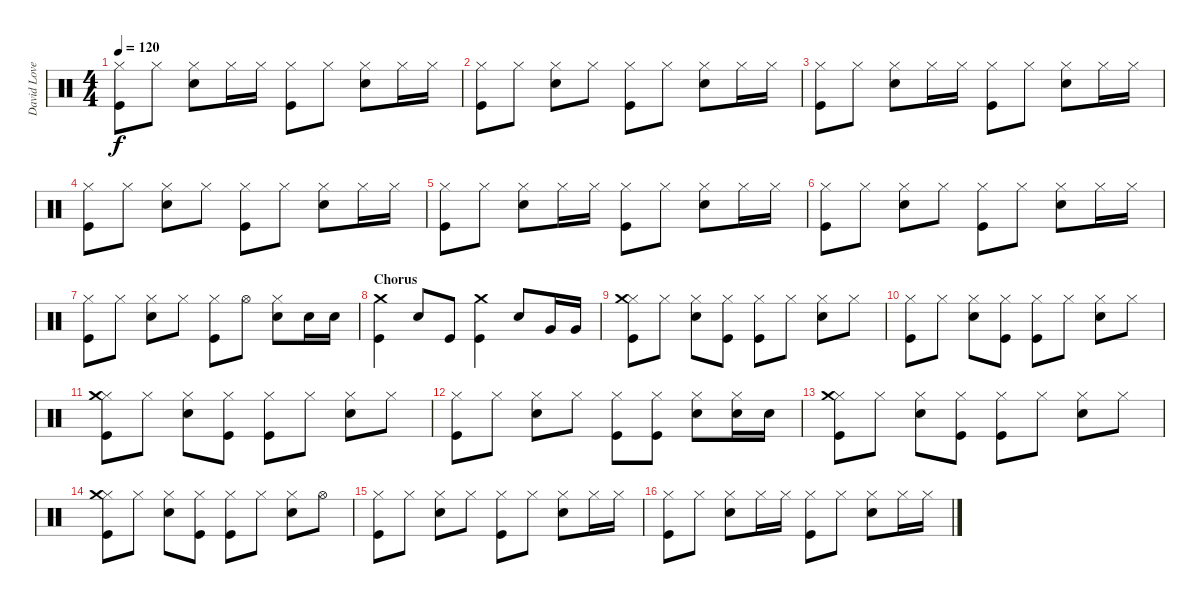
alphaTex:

\track ("David Lovering" "David Love") {instrument percussion}
\staff {score}
\articulation defaults
\ts (4 4)
\tempo 120
\clef neutral
\ks c
("Hi-Hat (closed)" "Kick (hit)").8{dy f} "Hi-Hat (closed)".8 ("Hi-Hat (closed)" "Snare (hit) 2").8 "Hi-Hat (closed)".16 "Hi-Hat (closed)".16 ("Hi-Hat (closed)" "Kick (hit)").8 "Hi-Hat (closed)".8 ("Hi-Hat (closed)" "Snare (hit) 2").8 "Hi-Hat (closed)".16 "Hi-Hat (closed)".16 |
("Hi-Hat (closed)" "Kick (hit)").8 "Hi-Hat (closed)".8 ("Hi-Hat (closed)" "Snare (hit) 2").8 "Hi-Hat (closed)".8 ("Hi-Hat (closed)" "Kick (hit)").8 "Hi-Hat (closed)".8 ("Hi-Hat (closed)" "Snare (hit) 2").8 "Hi-Hat (closed)".16 "Hi-Hat (closed)".16 |
("Hi-Hat (closed)" "Kick (hit)").8 "Hi-Hat (closed)".8 ("Hi-Hat (closed)" "Snare (hit) 2").8 "Hi-Hat (closed)".16 "Hi-Hat (closed)".16 ("Hi-Hat (closed)" "Kick (hit)").8 "Hi-Hat (closed)".8 ("Hi-Hat (closed)" "Snare (hit) 2").8 "Hi-Hat (closed)".16 "Hi-Hat (closed)".16 |
("Hi-Hat (closed)" "Kick (hit)").8 "Hi-Hat (closed)".8 ("Hi-Hat (closed)" "Snare (hit) 2").8 "Hi-Hat (closed)".8 ("Hi-Hat (closed)" "Kick (hit)").8 "Hi-Hat (closed)".8 ("Hi-Hat (closed)" "Snare (hit) 2").8 "Hi-Hat (closed)".16 "Hi-Hat (closed)".16 |
("Hi-Hat (closed)" "Kick (hit)").8 "Hi-Hat (closed)".8 ("Hi-Hat (closed)" "Snare (hit) 2").8 "Hi-Hat (closed)".16 "Hi-Hat (closed)".16 ("Hi-Hat (closed)" "Kick (hit)").8 "Hi-Hat (closed)".8 ("Hi-Hat (closed)" "Snare (hit) 2").8 "Hi-Hat (closed)".16 "Hi-Hat (closed)".16 |
("Hi-Hat (closed)" "Kick (hit)").8 "Hi-Hat (closed)".8 ("Hi-Hat (closed)" "Snare (hit) 2").8 "Hi-Hat (closed)".8 ("Hi-Hat (closed)" "Kick (hit)").8 "Hi-Hat (closed)".8 ("Hi-Hat (closed)" "Snare (hit) 2").8 "Hi-Hat (closed)".16 "Hi-Hat (closed)".16 |
("Hi-Hat (closed)" "Kick (hit)").8 "Hi-Hat (closed)".8 ("Hi-Hat (closed)" "Snare (hit) 2").8 "Hi-Hat (closed)".8 ("Hi-Hat (closed)" "Kick (hit)").8 "Hi-Hat (open)".8 ("Hi-Hat (closed)" "Snare (hit) 2").8 "Snare (hit) 2".16 "Snare (hit) 2".16 |
\section ("" "Chorus")
("Crash medium (hit)" "Kick (hit)").4 "Snare (hit) 2".8 "Kick (hit)".8 ("Crash medium (hit)" "Kick (hit)").4 "Snare (hit) 2".8 "Very Low Tom (hit)".16 "Very Low Tom (hit)".16 |
("Hi-Hat (closed)" "Crash medium (hit)" "Kick (hit)").8 "Hi-Hat (closed)".8 ("Hi-Hat (closed)" "Snare (hit) 2").8 ("Hi-Hat (closed)" "Kick (hit)").8 ("Hi-Hat (closed)" "Kick (hit)").8 "Hi-Hat (closed)".8 ("Hi-Hat (closed)" "Snare (hit) 2").8 "Hi-Hat (closed)".8 |
("Hi-Hat (closed)" "Kick (hit)").8 "Hi-Hat (closed)".8 ("Hi-Hat (closed)" "Snare (hit) 2").8 ("Hi-Hat (closed)" "Kick (hit)").8 ("Hi-Hat (closed)" "Kick (hit)").8 "Hi-Hat (closed)".8 ("Hi-Hat (closed)" "Snare (hit) 2").8 "Hi-Hat (closed)".8 |
("Hi-Hat (closed)" "Crash medium (hit)" "Kick (hit)").8 "Hi-Hat (closed)".8 ("Hi-Hat (closed)" "Snare (hit) 2").8 ("Hi-Hat (closed)" "Kick (hit)").8 ("Hi-Hat (closed)" "Kick (hit)").8 "Hi-Hat (closed)".8 ("Hi-Hat (closed)" "Snare (hit) 2").8 "Hi-Hat (closed)".8 |
("Hi-Hat (closed)" "Kick (hit)").8 "Hi-Hat (closed)".8 ("Hi-Hat (closed)" "Snare (hit) 2").8 "Hi-Hat (closed)".8 ("Hi-Hat (closed)" "Kick (hit)").8 ("Hi-Hat (closed)" "Kick (hit)").8 ("Hi-Hat (closed)" "Snare (hit) 2").8 ("Hi-Hat (closed)" "Snare (hit) 2").16 "Snare (hit) 2".16 |
("Hi-Hat (closed)" "Crash medium (hit)" "Kick (hit)").8 "Hi-Hat (closed)".8 ("Hi-Hat (closed)" "Snare (hit) 2").8 ("Hi-Hat (closed)" "Kick (hit)").8 ("Hi-Hat (closed)" "Kick (hit)").8 "Hi-Hat (closed)".8 ("Hi-Hat (closed)" "Snare (hit) 2").8 "Hi-Hat (closed)".8 |
("Hi-Hat (closed)" "Crash medium (hit)" "Kick (hit)").8 "Hi-Hat (closed)".8 ("Hi-Hat (closed)" "Snare (hit) 2").8 ("Hi-Hat (closed)" "Kick (hit)").8 ("Hi-Hat (closed)" "Kick (hit)").8 "Hi-Hat (closed)".8 ("Hi-Hat (closed)" "Snare (hit) 2").8 "Hi-Hat (open)".8 |
\section ("" "")
("Hi-Hat (closed)" "Kick (hit)").8 "Hi-Hat (closed)".8 ("Hi-Hat (closed)" "Snare (hit) 2").8 "Hi-Hat (closed)".8 ("Hi-Hat (closed)" "Kick (hit)").8 "Hi-Hat (closed)".8 ("Hi-Hat (closed)" "Snare (hit) 2").8 "Hi-Hat (closed)".16 "Hi-Hat (closed)".16 |
("Hi-Hat (closed)" "Kick (hit)").8 "Hi-Hat (closed)".8 ("Hi-Hat (closed)" "Snare (hit) 2").8 "Hi-Hat (closed)".16 "Hi-Hat (closed)".16 ("Hi-Hat (closed)" "Kick (hit)").8 "Hi-Hat (closed)".8 ("Hi-Hat (closed)" "Snare (hit) 2").8 "Hi-Hat (closed)".16 "Hi-Hat (closed)".16
